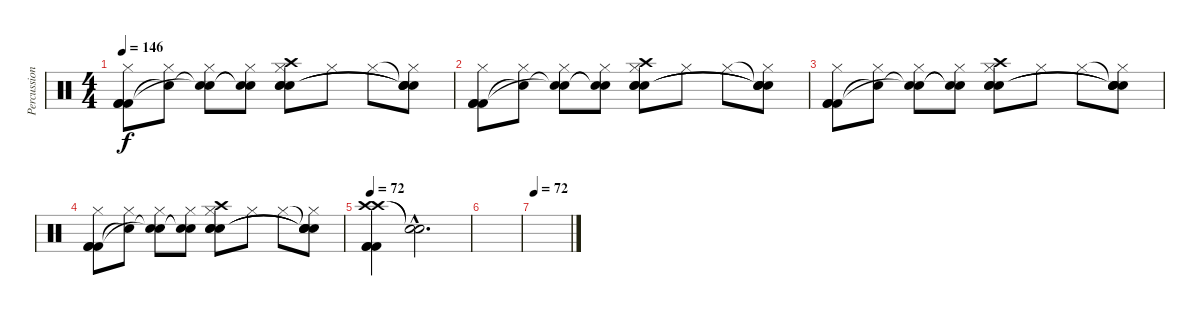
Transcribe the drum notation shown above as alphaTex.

\track ("Percussion" "Percussion") {instrument percussion}
\staff {score}
\articulation defaults
\ts (4 4)
\tempo 146
\clef neutral
\ks c
("Hi-Hat (closed)" "Kick (hit) 2" "Kick (hit) 2" "Kick (hit) 2").8{dy f} ("Hi-Hat (closed)" "Snare (hit)"{t}).8 ("Hi-Hat (closed)" "Snare (hit)"{t} "Snare (hit)"{t}).8 ("Hi-Hat (closed)" "Snare (hit)"{t} "Snare (hit)"{t}).8 ("Crash high (hit)" "Hi-Hat (closed)" "Snare (hit) 2" "Snare (hit) 2" "Snare (hit) 2").8 "Hi-Hat (closed)".8 "Hi-Hat (closed)".8 ("Snare (hit)"{t} "Hi-Hat (closed)" "Snare (hit)"{t} "Snare (hit)"{t} "Snare (hit)"{t}).8 |
("Hi-Hat (closed)" "Kick (hit) 2" "Kick (hit) 2" "Kick (hit) 2").8 ("Hi-Hat (closed)" "Snare (hit)"{t}).8 ("Hi-Hat (closed)" "Snare (hit)"{t} "Snare (hit)"{t}).8 ("Hi-Hat (closed)" "Snare (hit)"{t} "Snare (hit)"{t}).8 ("Crash high (hit)" "Hi-Hat (closed)" "Snare (hit) 2" "Snare (hit) 2" "Snare (hit) 2").8 "Hi-Hat (closed)".8 "Hi-Hat (closed)".8 ("Snare (hit)"{t} "Hi-Hat (closed)" "Snare (hit)"{t} "Snare (hit)"{t} "Snare (hit)"{t}).8 |
("Hi-Hat (closed)" "Kick (hit) 2" "Kick (hit) 2" "Kick (hit) 2").8 ("Hi-Hat (closed)" "Snare (hit)"{t}).8 ("Hi-Hat (closed)" "Snare (hit)"{t} "Snare (hit)"{t}).8 ("Hi-Hat (closed)" "Snare (hit)"{t} "Snare (hit)"{t}).8 ("Crash high (hit)" "Hi-Hat (closed)" "Snare (hit) 2" "Snare (hit) 2" "Snare (hit) 2").8 "Hi-Hat (closed)".8 "Hi-Hat (closed)".8 ("Snare (hit)"{t} "Hi-Hat (closed)" "Snare (hit)"{t} "Snare (hit)"{t} "Snare (hit)"{t}).8 |
("Hi-Hat (closed)" "Kick (hit) 2" "Kick (hit) 2" "Kick (hit) 2").8 ("Hi-Hat (closed)" "Snare (hit)"{t}).8 ("Hi-Hat (closed)" "Snare (hit)"{t} "Snare (hit)"{t}).8 ("Hi-Hat (closed)" "Snare (hit)"{t} "Snare (hit)"{t}).8 ("Crash high (hit)" "Hi-Hat (closed)" "Snare (hit) 2" "Snare (hit) 2" "Snare (hit) 2").8 "Hi-Hat (closed)".8 "Hi-Hat (closed)".8 ("Snare (hit)"{t} "Hi-Hat (closed)" "Snare (hit)"{t} "Snare (hit)"{t} "Snare (hit)"{t}).8 |
\tempo 72
("Crash high (hit)" "Crash high (hit)" "Kick (hit) 2" "Kick (hit) 2" "Kick (hit) 2").4 ("Snare (hit)"{hac t} "Snare (hit)"{hac t}).2{d} |
|
\tempo 72
